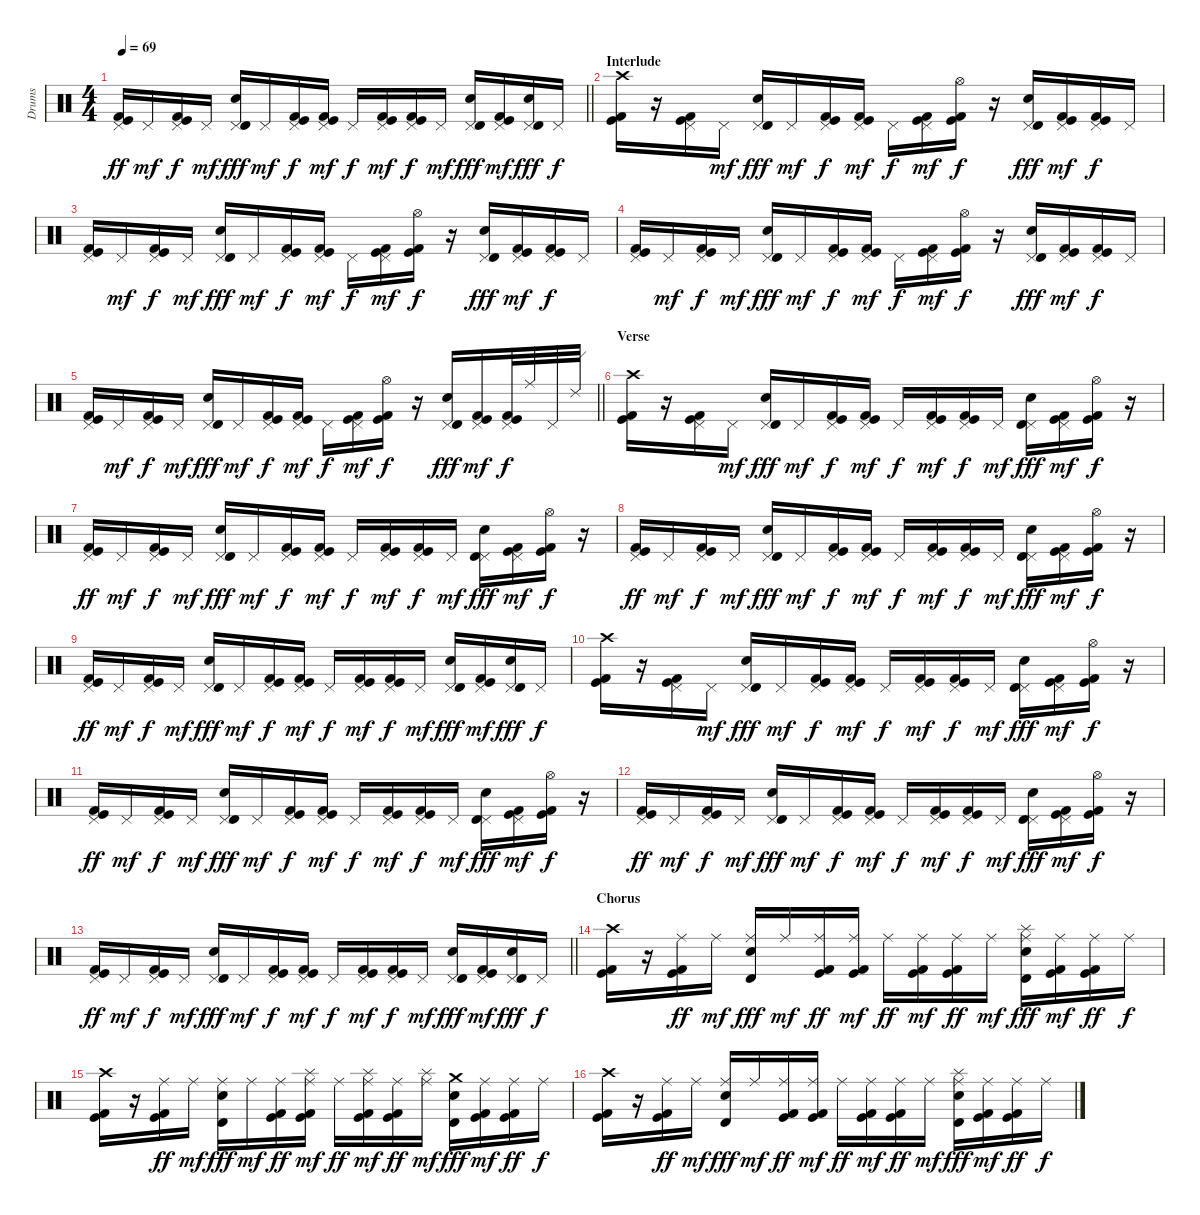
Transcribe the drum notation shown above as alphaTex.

\track ("Drums" "Drums") {instrument percussion}
\staff {score}
\articulation defaults
\ts (4 4)
\tempo 69
\clef neutral
\barLineRight lightlight
\ks c
("Pedal Hi-Hat (hit)" "Kick (hit) 2" "Kick (hit)").16{dy ff} "Pedal Hi-Hat (hit)".16{dy mf} ("Pedal Hi-Hat (hit)" "Kick (hit) 2" "Kick (hit)").16{dy f} "Pedal Hi-Hat (hit)".16{dy mf} ("Pedal Hi-Hat (hit)" "Timbale high (hit)" "Electric Snare (hit)").16{dy fff} "Pedal Hi-Hat (hit)".16{dy mf} ("Pedal Hi-Hat (hit)" "Kick (hit) 2" "Kick (hit)").16{dy f} ("Pedal Hi-Hat (hit)" "Kick (hit) 2" "Kick (hit)").16{dy mf} "Pedal Hi-Hat (hit)".16{dy f} ("Pedal Hi-Hat (hit)" "Kick (hit) 2" "Kick (hit)").16{dy mf} ("Pedal Hi-Hat (hit)" "Kick (hit) 2" "Kick (hit)").16{dy f} "Pedal Hi-Hat (hit)".16{dy mf} ("Pedal Hi-Hat (hit)" "Timbale high (hit)" "Electric Snare (hit)").16{dy fff} ("Pedal Hi-Hat (hit)" "Kick (hit) 2" "Kick (hit)").16{dy mf} ("Pedal Hi-Hat (hit)" "Timbale high (hit)" "Electric Snare (hit)").16{dy fff} "Pedal Hi-Hat (hit)".16{dy f} |
\section ("" "Interlude")
("Crash high (hit)" "Kick (hit) 2" "Kick (hit)").16 r.16 ("Pedal Hi-Hat (hit)" "Kick (hit) 2" "Kick (hit)").16 "Pedal Hi-Hat (hit)".16{dy mf} ("Pedal Hi-Hat (hit)" "Timbale high (hit)" "Electric Snare (hit)").16{dy fff} "Pedal Hi-Hat (hit)".16{dy mf} ("Pedal Hi-Hat (hit)" "Kick (hit) 2" "Kick (hit)").16{dy f} ("Pedal Hi-Hat (hit)" "Kick (hit) 2" "Kick (hit)").16{dy mf} "Pedal Hi-Hat (hit)".16{dy f} ("Pedal Hi-Hat (hit)" "Kick (hit) 2" "Kick (hit)").16{dy mf} ("Hi-Hat (open)" "Kick (hit) 2" "Kick (hit)").16{dy f} r.16 ("Pedal Hi-Hat (hit)" "Timbale high (hit)" "Electric Snare (hit)").16{dy fff} ("Pedal Hi-Hat (hit)" "Kick (hit) 2" "Kick (hit)").16{dy mf} ("Pedal Hi-Hat (hit)" "Kick (hit) 2" "Kick (hit)").16{dy f} "Pedal Hi-Hat (hit)".16 |
("Pedal Hi-Hat (hit)" "Kick (hit) 2" "Kick (hit)").16 "Pedal Hi-Hat (hit)".16{dy mf} ("Pedal Hi-Hat (hit)" "Kick (hit) 2" "Kick (hit)").16{dy f} "Pedal Hi-Hat (hit)".16{dy mf} ("Pedal Hi-Hat (hit)" "Timbale high (hit)" "Electric Snare (hit)").16{dy fff} "Pedal Hi-Hat (hit)".16{dy mf} ("Pedal Hi-Hat (hit)" "Kick (hit) 2" "Kick (hit)").16{dy f} ("Pedal Hi-Hat (hit)" "Kick (hit) 2" "Kick (hit)").16{dy mf} "Pedal Hi-Hat (hit)".16{dy f} ("Pedal Hi-Hat (hit)" "Kick (hit) 2" "Kick (hit)").16{dy mf} ("Hi-Hat (open)" "Kick (hit) 2" "Kick (hit)").16{dy f} r.16 ("Pedal Hi-Hat (hit)" "Timbale high (hit)" "Electric Snare (hit)").16{dy fff} ("Pedal Hi-Hat (hit)" "Kick (hit) 2" "Kick (hit)").16{dy mf} ("Pedal Hi-Hat (hit)" "Kick (hit) 2" "Kick (hit)").16{dy f} "Pedal Hi-Hat (hit)".16 |
("Pedal Hi-Hat (hit)" "Kick (hit) 2" "Kick (hit)").16 "Pedal Hi-Hat (hit)".16{dy mf} ("Pedal Hi-Hat (hit)" "Kick (hit) 2" "Kick (hit)").16{dy f} "Pedal Hi-Hat (hit)".16{dy mf} ("Pedal Hi-Hat (hit)" "Timbale high (hit)" "Electric Snare (hit)").16{dy fff} "Pedal Hi-Hat (hit)".16{dy mf} ("Pedal Hi-Hat (hit)" "Kick (hit) 2" "Kick (hit)").16{dy f} ("Pedal Hi-Hat (hit)" "Kick (hit) 2" "Kick (hit)").16{dy mf} "Pedal Hi-Hat (hit)".16{dy f} ("Pedal Hi-Hat (hit)" "Kick (hit) 2" "Kick (hit)").16{dy mf} ("Hi-Hat (open)" "Kick (hit) 2" "Kick (hit)").16{dy f} r.16 ("Pedal Hi-Hat (hit)" "Timbale high (hit)" "Electric Snare (hit)").16{dy fff} ("Pedal Hi-Hat (hit)" "Kick (hit) 2" "Kick (hit)").16{dy mf} ("Pedal Hi-Hat (hit)" "Kick (hit) 2" "Kick (hit)").16{dy f} "Pedal Hi-Hat (hit)".16 |
\barLineRight lightlight
("Pedal Hi-Hat (hit)" "Kick (hit) 2" "Kick (hit)").16 "Pedal Hi-Hat (hit)".16{dy mf} ("Pedal Hi-Hat (hit)" "Kick (hit) 2" "Kick (hit)").16{dy f} "Pedal Hi-Hat (hit)".16{dy mf} ("Pedal Hi-Hat (hit)" "Timbale high (hit)" "Electric Snare (hit)").16{dy fff} "Pedal Hi-Hat (hit)".16{dy mf} ("Pedal Hi-Hat (hit)" "Kick (hit) 2" "Kick (hit)").16{dy f} ("Pedal Hi-Hat (hit)" "Kick (hit) 2" "Kick (hit)").16{dy mf} "Pedal Hi-Hat (hit)".16{dy f} ("Pedal Hi-Hat (hit)" "Kick (hit) 2" "Kick (hit)").16{dy mf} ("Hi-Hat (open)" "Kick (hit) 2" "Kick (hit)").16{dy f} r.16 ("Pedal Hi-Hat (hit)" "Timbale high (hit)" "Electric Snare (hit)").16{dy fff} ("Pedal Hi-Hat (hit)" "Kick (hit) 2" "Kick (hit)").16{dy mf} ("Pedal Hi-Hat (hit)" "Kick (hit) 2" "Kick (hit)").32{dy f} "Ride (middle)".32 "Pedal Hi-Hat (hit)".32 "Ride (edge) 2".32 |
\section ("" "Verse")
("Crash high (hit)" "Kick (hit) 2" "Kick (hit)").16 r.16 ("Pedal Hi-Hat (hit)" "Kick (hit) 2" "Kick (hit)").16 "Pedal Hi-Hat (hit)".16{dy mf} ("Pedal Hi-Hat (hit)" "Timbale high (hit)" "Electric Snare (hit)").16{dy fff} "Pedal Hi-Hat (hit)".16{dy mf} ("Pedal Hi-Hat (hit)" "Kick (hit) 2" "Kick (hit)").16{dy f} ("Pedal Hi-Hat (hit)" "Kick (hit) 2" "Kick (hit)").16{dy mf} "Pedal Hi-Hat (hit)".16{dy f} ("Pedal Hi-Hat (hit)" "Kick (hit) 2" "Kick (hit)").16{dy mf} ("Pedal Hi-Hat (hit)" "Kick (hit) 2" "Kick (hit)").16{dy f} "Pedal Hi-Hat (hit)".16{dy mf} ("Pedal Hi-Hat (hit)" "Timbale high (hit)" "Electric Snare (hit)").16{dy fff} ("Pedal Hi-Hat (hit)" "Kick (hit) 2" "Kick (hit)").16{dy mf} ("Hi-Hat (open)" "Kick (hit) 2" "Kick (hit)").16{dy f} r.16 |
("Pedal Hi-Hat (hit)" "Kick (hit) 2" "Kick (hit)").16{dy ff} "Pedal Hi-Hat (hit)".16{dy mf} ("Pedal Hi-Hat (hit)" "Kick (hit) 2" "Kick (hit)").16{dy f} "Pedal Hi-Hat (hit)".16{dy mf} ("Pedal Hi-Hat (hit)" "Timbale high (hit)" "Electric Snare (hit)").16{dy fff} "Pedal Hi-Hat (hit)".16{dy mf} ("Pedal Hi-Hat (hit)" "Kick (hit) 2" "Kick (hit)").16{dy f} ("Pedal Hi-Hat (hit)" "Kick (hit) 2" "Kick (hit)").16{dy mf} "Pedal Hi-Hat (hit)".16{dy f} ("Pedal Hi-Hat (hit)" "Kick (hit) 2" "Kick (hit)").16{dy mf} ("Pedal Hi-Hat (hit)" "Kick (hit) 2" "Kick (hit)").16{dy f} "Pedal Hi-Hat (hit)".16{dy mf} ("Pedal Hi-Hat (hit)" "Timbale high (hit)" "Electric Snare (hit)").16{dy fff} ("Pedal Hi-Hat (hit)" "Kick (hit) 2" "Kick (hit)").16{dy mf} ("Hi-Hat (open)" "Kick (hit) 2" "Kick (hit)").16{dy f} r.16 |
("Pedal Hi-Hat (hit)" "Kick (hit) 2" "Kick (hit)").16{dy ff} "Pedal Hi-Hat (hit)".16{dy mf} ("Pedal Hi-Hat (hit)" "Kick (hit) 2" "Kick (hit)").16{dy f} "Pedal Hi-Hat (hit)".16{dy mf} ("Pedal Hi-Hat (hit)" "Timbale high (hit)" "Electric Snare (hit)").16{dy fff} "Pedal Hi-Hat (hit)".16{dy mf} ("Pedal Hi-Hat (hit)" "Kick (hit) 2" "Kick (hit)").16{dy f} ("Pedal Hi-Hat (hit)" "Kick (hit) 2" "Kick (hit)").16{dy mf} "Pedal Hi-Hat (hit)".16{dy f} ("Pedal Hi-Hat (hit)" "Kick (hit) 2" "Kick (hit)").16{dy mf} ("Pedal Hi-Hat (hit)" "Kick (hit) 2" "Kick (hit)").16{dy f} "Pedal Hi-Hat (hit)".16{dy mf} ("Pedal Hi-Hat (hit)" "Timbale high (hit)" "Electric Snare (hit)").16{dy fff} ("Pedal Hi-Hat (hit)" "Kick (hit) 2" "Kick (hit)").16{dy mf} ("Hi-Hat (open)" "Kick (hit) 2" "Kick (hit)").16{dy f} r.16 |
("Pedal Hi-Hat (hit)" "Kick (hit) 2" "Kick (hit)").16{dy ff} "Pedal Hi-Hat (hit)".16{dy mf} ("Pedal Hi-Hat (hit)" "Kick (hit) 2" "Kick (hit)").16{dy f} "Pedal Hi-Hat (hit)".16{dy mf} ("Pedal Hi-Hat (hit)" "Timbale high (hit)" "Electric Snare (hit)").16{dy fff} "Pedal Hi-Hat (hit)".16{dy mf} ("Pedal Hi-Hat (hit)" "Kick (hit) 2" "Kick (hit)").16{dy f} ("Pedal Hi-Hat (hit)" "Kick (hit) 2" "Kick (hit)").16{dy mf} "Pedal Hi-Hat (hit)".16{dy f} ("Pedal Hi-Hat (hit)" "Kick (hit) 2" "Kick (hit)").16{dy mf} ("Pedal Hi-Hat (hit)" "Kick (hit) 2" "Kick (hit)").16{dy f} "Pedal Hi-Hat (hit)".16{dy mf} ("Pedal Hi-Hat (hit)" "Timbale high (hit)" "Electric Snare (hit)").16{dy fff} ("Pedal Hi-Hat (hit)" "Kick (hit) 2" "Kick (hit)").16{dy mf} ("Pedal Hi-Hat (hit)" "Timbale high (hit)" "Electric Snare (hit)").16{dy fff} "Pedal Hi-Hat (hit)".16{dy f} |
("Crash high (hit)" "Kick (hit) 2" "Kick (hit)").16 r.16 ("Pedal Hi-Hat (hit)" "Kick (hit) 2" "Kick (hit)").16 "Pedal Hi-Hat (hit)".16{dy mf} ("Pedal Hi-Hat (hit)" "Timbale high (hit)" "Electric Snare (hit)").16{dy fff} "Pedal Hi-Hat (hit)".16{dy mf} ("Pedal Hi-Hat (hit)" "Kick (hit) 2" "Kick (hit)").16{dy f} ("Pedal Hi-Hat (hit)" "Kick (hit) 2" "Kick (hit)").16{dy mf} "Pedal Hi-Hat (hit)".16{dy f} ("Pedal Hi-Hat (hit)" "Kick (hit) 2" "Kick (hit)").16{dy mf} ("Pedal Hi-Hat (hit)" "Kick (hit) 2" "Kick (hit)").16{dy f} "Pedal Hi-Hat (hit)".16{dy mf} ("Pedal Hi-Hat (hit)" "Timbale high (hit)" "Electric Snare (hit)").16{dy fff} ("Pedal Hi-Hat (hit)" "Kick (hit) 2" "Kick (hit)").16{dy mf} ("Hi-Hat (open)" "Kick (hit) 2" "Kick (hit)").16{dy f} r.16 |
("Pedal Hi-Hat (hit)" "Kick (hit) 2" "Kick (hit)").16{dy ff} "Pedal Hi-Hat (hit)".16{dy mf} ("Pedal Hi-Hat (hit)" "Kick (hit) 2" "Kick (hit)").16{dy f} "Pedal Hi-Hat (hit)".16{dy mf} ("Pedal Hi-Hat (hit)" "Timbale high (hit)" "Electric Snare (hit)").16{dy fff} "Pedal Hi-Hat (hit)".16{dy mf} ("Pedal Hi-Hat (hit)" "Kick (hit) 2" "Kick (hit)").16{dy f} ("Pedal Hi-Hat (hit)" "Kick (hit) 2" "Kick (hit)").16{dy mf} "Pedal Hi-Hat (hit)".16{dy f} ("Pedal Hi-Hat (hit)" "Kick (hit) 2" "Kick (hit)").16{dy mf} ("Pedal Hi-Hat (hit)" "Kick (hit) 2" "Kick (hit)").16{dy f} "Pedal Hi-Hat (hit)".16{dy mf} ("Pedal Hi-Hat (hit)" "Timbale high (hit)" "Electric Snare (hit)").16{dy fff} ("Pedal Hi-Hat (hit)" "Kick (hit) 2" "Kick (hit)").16{dy mf} ("Hi-Hat (open)" "Kick (hit) 2" "Kick (hit)").16{dy f} r.16 |
("Pedal Hi-Hat (hit)" "Kick (hit) 2" "Kick (hit)").16{dy ff} "Pedal Hi-Hat (hit)".16{dy mf} ("Pedal Hi-Hat (hit)" "Kick (hit) 2" "Kick (hit)").16{dy f} "Pedal Hi-Hat (hit)".16{dy mf} ("Pedal Hi-Hat (hit)" "Timbale high (hit)" "Electric Snare (hit)").16{dy fff} "Pedal Hi-Hat (hit)".16{dy mf} ("Pedal Hi-Hat (hit)" "Kick (hit) 2" "Kick (hit)").16{dy f} ("Pedal Hi-Hat (hit)" "Kick (hit) 2" "Kick (hit)").16{dy mf} "Pedal Hi-Hat (hit)".16{dy f} ("Pedal Hi-Hat (hit)" "Kick (hit) 2" "Kick (hit)").16{dy mf} ("Pedal Hi-Hat (hit)" "Kick (hit) 2" "Kick (hit)").16{dy f} "Pedal Hi-Hat (hit)".16{dy mf} ("Pedal Hi-Hat (hit)" "Timbale high (hit)" "Electric Snare (hit)").16{dy fff} ("Pedal Hi-Hat (hit)" "Kick (hit) 2" "Kick (hit)").16{dy mf} ("Hi-Hat (open)" "Kick (hit) 2" "Kick (hit)").16{dy f} r.16 |
\barLineRight lightlight
("Pedal Hi-Hat (hit)" "Kick (hit) 2" "Kick (hit)").16{dy ff} "Pedal Hi-Hat (hit)".16{dy mf} ("Pedal Hi-Hat (hit)" "Kick (hit) 2" "Kick (hit)").16{dy f} "Pedal Hi-Hat (hit)".16{dy mf} ("Pedal Hi-Hat (hit)" "Timbale high (hit)" "Electric Snare (hit)").16{dy fff} "Pedal Hi-Hat (hit)".16{dy mf} ("Pedal Hi-Hat (hit)" "Kick (hit) 2" "Kick (hit)").16{dy f} ("Pedal Hi-Hat (hit)" "Kick (hit) 2" "Kick (hit)").16{dy mf} "Pedal Hi-Hat (hit)".16{dy f} ("Pedal Hi-Hat (hit)" "Kick (hit) 2" "Kick (hit)").16{dy mf} ("Pedal Hi-Hat (hit)" "Kick (hit) 2" "Kick (hit)").16{dy f} "Pedal Hi-Hat (hit)".16{dy mf} ("Pedal Hi-Hat (hit)" "Timbale high (hit)" "Electric Snare (hit)").16{dy fff} ("Pedal Hi-Hat (hit)" "Kick (hit) 2" "Kick (hit)").16{dy mf} ("Pedal Hi-Hat (hit)" "Timbale high (hit)" "Electric Snare (hit)").16{dy fff} "Pedal Hi-Hat (hit)".16{dy f} |
\section ("" "Chorus")
("Crash high (hit)" "Kick (hit) 2" "Kick (hit)").16 r.16 ("Ride (middle)" "Kick (hit) 2" "Kick (hit)").16{dy ff} "Ride (middle)".16{dy mf} ("Ride (middle)" "Timbale high (hit)" "Electric Snare (hit)").16{dy fff} "Ride (middle)".16{dy mf} ("Ride (middle)" "Kick (hit) 2" "Kick (hit)").16{dy ff} ("Ride (middle)" "Kick (hit) 2" "Kick (hit)").16{dy mf} "Ride (middle)".16{dy ff} ("Ride (middle)" "Kick (hit) 2" "Kick (hit)").16{dy mf} ("Ride (middle)" "Kick (hit) 2" "Kick (hit)").16{dy ff} "Ride (middle)".16{dy mf} ("Splash (hit)" "Ride (middle)" "Timbale high (hit)" "Electric Snare (hit)").16{dy fff} ("Ride (middle)" "Kick (hit) 2" "Kick (hit)").16{dy mf} ("Ride (middle)" "Kick (hit) 2" "Kick (hit)").16{dy ff} "Ride (middle)".16{dy f} |
("Crash high (hit)" "Kick (hit) 2" "Kick (hit)").16 r.16 ("Ride (middle)" "Kick (hit) 2" "Kick (hit)").16{dy ff} "Ride (middle)".16{dy mf} ("Ride (middle)" "Timbale high (hit)" "Electric Snare (hit)").16{dy fff} "Ride (middle)".16{dy mf} ("Ride (middle)" "Kick (hit) 2" "Kick (hit)").16{dy ff} ("Splash (hit)" "Ride (middle)" "Kick (hit) 2" "Kick (hit)").16{dy mf} "Ride (middle)".16{dy ff} ("Splash (hit)" "Ride (middle)" "Kick (hit) 2" "Kick (hit)").16{dy mf} ("Ride (middle)" "Kick (hit) 2" "Kick (hit)").16{dy ff} ("Splash (hit)" "Ride (middle)").16{dy mf} ("Crash medium (hit)" "Timbale high (hit)" "Electric Snare (hit)").16{dy fff} ("Ride (middle)" "Kick (hit) 2" "Kick (hit)").16{dy mf} ("Ride (middle)" "Kick (hit) 2" "Kick (hit)").16{dy ff} "Ride (middle)".16{dy f} |
("Crash high (hit)" "Kick (hit) 2" "Kick (hit)").16 r.16 ("Ride (middle)" "Kick (hit) 2" "Kick (hit)").16{dy ff} "Ride (middle)".16{dy mf} ("Ride (middle)" "Timbale high (hit)" "Electric Snare (hit)").16{dy fff} "Ride (middle)".16{dy mf} ("Ride (middle)" "Kick (hit) 2" "Kick (hit)").16{dy ff} ("Ride (middle)" "Kick (hit) 2" "Kick (hit)").16{dy mf} "Ride (middle)".16{dy ff} ("Ride (middle)" "Kick (hit) 2" "Kick (hit)").16{dy mf} ("Ride (middle)" "Kick (hit) 2" "Kick (hit)").16{dy ff} "Ride (middle)".16{dy mf} ("Splash (hit)" "Ride (middle)" "Timbale high (hit)" "Electric Snare (hit)").16{dy fff} ("Ride (middle)" "Kick (hit) 2" "Kick (hit)").16{dy mf} ("Ride (middle)" "Kick (hit) 2" "Kick (hit)").16{dy ff} "Ride (middle)".16{dy f}
